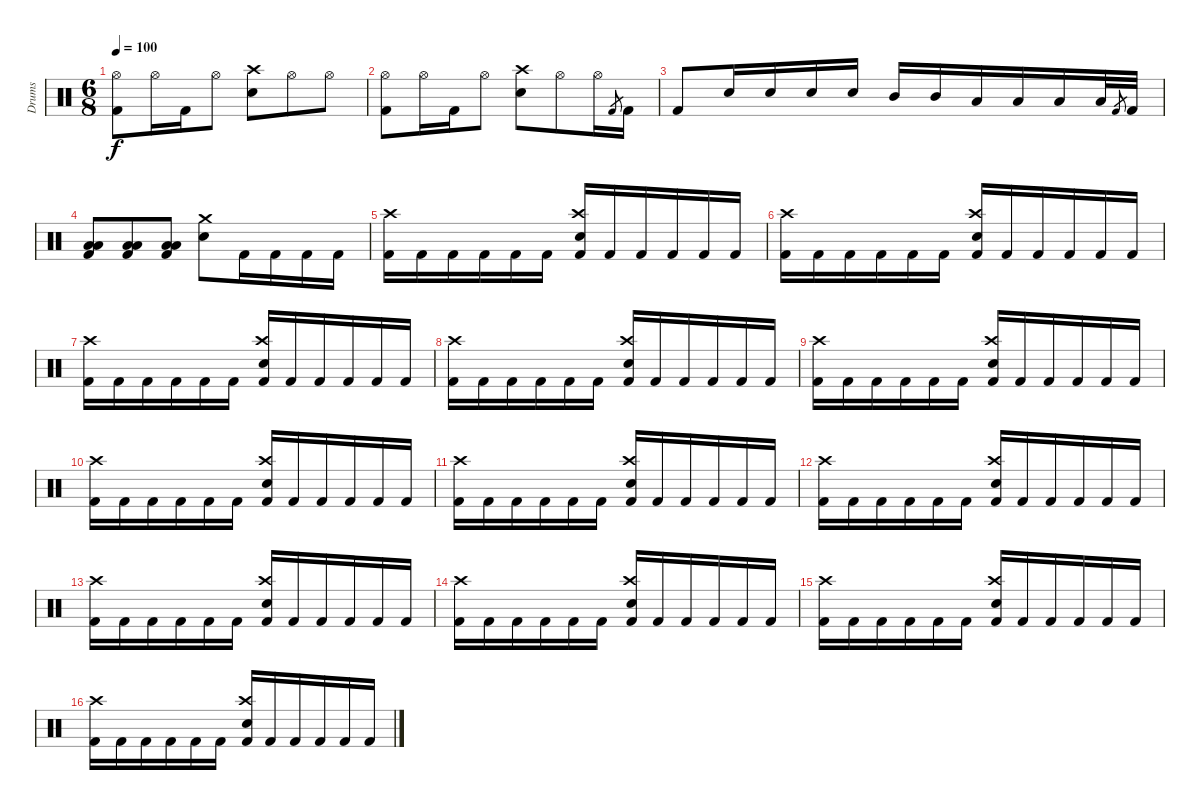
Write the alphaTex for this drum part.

\track ("Drums" "Drums") {instrument percussion}
\staff {score}
\articulation defaults
\ts (6 8)
\tempo 100
\clef neutral
\ks c
("Hi-Hat (open)" "Kick (hit) 2").8{dy f} "Hi-Hat (open)".16 "Kick (hit) 2".16 "Hi-Hat (open)".8 ("Crash high (hit)" "Snare (hit) 2").8 "Hi-Hat (open)".8 "Hi-Hat (open)".8 |
("Hi-Hat (open)" "Kick (hit) 2").8 "Hi-Hat (open)".16 "Kick (hit) 2".16 "Hi-Hat (open)".8 ("Crash high (hit)" "Snare (hit) 2").8 "Hi-Hat (open)".8 "Hi-Hat (open)".16 "Kick (hit) 2".8{gr} "Kick (hit) 2".16 |
"Kick (hit) 2".8 "Electric Snare (hit)".16 "Electric Snare (hit)".16 "Electric Snare (hit)".16 "Electric Snare (hit)".16 "Mid Tom (hit)".16 "Mid Tom (hit)".16 "Low Tom (hit)".16 "Low Tom (hit)".16 "Low Floor Tom (hit)".16 "Low Floor Tom (hit)".32 "Kick (hit) 2".8{gr} "Kick (hit) 2".32 |
("Low Tom (hit)" "Low Floor Tom (hit)" "Kick (hit) 2").8 ("Low Tom (hit)" "Low Floor Tom (hit)" "Kick (hit) 2").8 ("Low Tom (hit)" "Low Floor Tom (hit)" "Kick (hit) 2").8 ("Crash medium (hit)" "Snare (hit) 2").8 "Kick (hit) 2".16 "Kick (hit) 2".16 "Kick (hit) 2".16 "Kick (hit) 2".16 |
("Crash high (hit)" "Kick (hit) 2").16 "Kick (hit) 2".16 "Kick (hit) 2".16 "Kick (hit) 2".16 "Kick (hit) 2".16 "Kick (hit) 2".16 ("Crash high (hit)" "Electric Snare (hit)" "Kick (hit) 2").16 "Kick (hit) 2".16 "Kick (hit) 2".16 "Kick (hit) 2".16 "Kick (hit) 2".16 "Kick (hit) 2".16 |
("Crash high (hit)" "Kick (hit) 2").16 "Kick (hit) 2".16 "Kick (hit) 2".16 "Kick (hit) 2".16 "Kick (hit) 2".16 "Kick (hit) 2".16 ("Crash high (hit)" "Electric Snare (hit)" "Kick (hit) 2").16 "Kick (hit) 2".16 "Kick (hit) 2".16 "Kick (hit) 2".16 "Kick (hit) 2".16 "Kick (hit) 2".16 |
("Crash high (hit)" "Kick (hit) 2").16 "Kick (hit) 2".16 "Kick (hit) 2".16 "Kick (hit) 2".16 "Kick (hit) 2".16 "Kick (hit) 2".16 ("Crash high (hit)" "Electric Snare (hit)" "Kick (hit) 2").16 "Kick (hit) 2".16 "Kick (hit) 2".16 "Kick (hit) 2".16 "Kick (hit) 2".16 "Kick (hit) 2".16 |
("Crash high (hit)" "Kick (hit) 2").16 "Kick (hit) 2".16 "Kick (hit) 2".16 "Kick (hit) 2".16 "Kick (hit) 2".16 "Kick (hit) 2".16 ("Crash high (hit)" "Electric Snare (hit)" "Kick (hit) 2").16 "Kick (hit) 2".16 "Kick (hit) 2".16 "Kick (hit) 2".16 "Kick (hit) 2".16 "Kick (hit) 2".16 |
("Crash high (hit)" "Kick (hit) 2").16 "Kick (hit) 2".16 "Kick (hit) 2".16 "Kick (hit) 2".16 "Kick (hit) 2".16 "Kick (hit) 2".16 ("Crash high (hit)" "Electric Snare (hit)" "Kick (hit) 2").16 "Kick (hit) 2".16 "Kick (hit) 2".16 "Kick (hit) 2".16 "Kick (hit) 2".16 "Kick (hit) 2".16 |
("Crash high (hit)" "Kick (hit) 2").16 "Kick (hit) 2".16 "Kick (hit) 2".16 "Kick (hit) 2".16 "Kick (hit) 2".16 "Kick (hit) 2".16 ("Crash high (hit)" "Electric Snare (hit)" "Kick (hit) 2").16 "Kick (hit) 2".16 "Kick (hit) 2".16 "Kick (hit) 2".16 "Kick (hit) 2".16 "Kick (hit) 2".16 |
("Crash high (hit)" "Kick (hit) 2").16 "Kick (hit) 2".16 "Kick (hit) 2".16 "Kick (hit) 2".16 "Kick (hit) 2".16 "Kick (hit) 2".16 ("Crash high (hit)" "Electric Snare (hit)" "Kick (hit) 2").16 "Kick (hit) 2".16 "Kick (hit) 2".16 "Kick (hit) 2".16 "Kick (hit) 2".16 "Kick (hit) 2".16 |
("Crash high (hit)" "Kick (hit) 2").16 "Kick (hit) 2".16 "Kick (hit) 2".16 "Kick (hit) 2".16 "Kick (hit) 2".16 "Kick (hit) 2".16 ("Crash high (hit)" "Electric Snare (hit)" "Kick (hit) 2").16 "Kick (hit) 2".16 "Kick (hit) 2".16 "Kick (hit) 2".16 "Kick (hit) 2".16 "Kick (hit) 2".16 |
("Crash high (hit)" "Kick (hit) 2").16 "Kick (hit) 2".16 "Kick (hit) 2".16 "Kick (hit) 2".16 "Kick (hit) 2".16 "Kick (hit) 2".16 ("Crash high (hit)" "Electric Snare (hit)" "Kick (hit) 2").16 "Kick (hit) 2".16 "Kick (hit) 2".16 "Kick (hit) 2".16 "Kick (hit) 2".16 "Kick (hit) 2".16 |
("Crash high (hit)" "Kick (hit) 2").16 "Kick (hit) 2".16 "Kick (hit) 2".16 "Kick (hit) 2".16 "Kick (hit) 2".16 "Kick (hit) 2".16 ("Crash high (hit)" "Electric Snare (hit)" "Kick (hit) 2").16 "Kick (hit) 2".16 "Kick (hit) 2".16 "Kick (hit) 2".16 "Kick (hit) 2".16 "Kick (hit) 2".16 |
("Crash high (hit)" "Kick (hit) 2").16 "Kick (hit) 2".16 "Kick (hit) 2".16 "Kick (hit) 2".16 "Kick (hit) 2".16 "Kick (hit) 2".16 ("Crash high (hit)" "Electric Snare (hit)" "Kick (hit) 2").16 "Kick (hit) 2".16 "Kick (hit) 2".16 "Kick (hit) 2".16 "Kick (hit) 2".16 "Kick (hit) 2".16 |
("Crash high (hit)" "Kick (hit) 2").16 "Kick (hit) 2".16 "Kick (hit) 2".16 "Kick (hit) 2".16 "Kick (hit) 2".16 "Kick (hit) 2".16 ("Crash high (hit)" "Electric Snare (hit)" "Kick (hit) 2").16 "Kick (hit) 2".16 "Kick (hit) 2".16 "Kick (hit) 2".16 "Kick (hit) 2".16 "Kick (hit) 2".16
